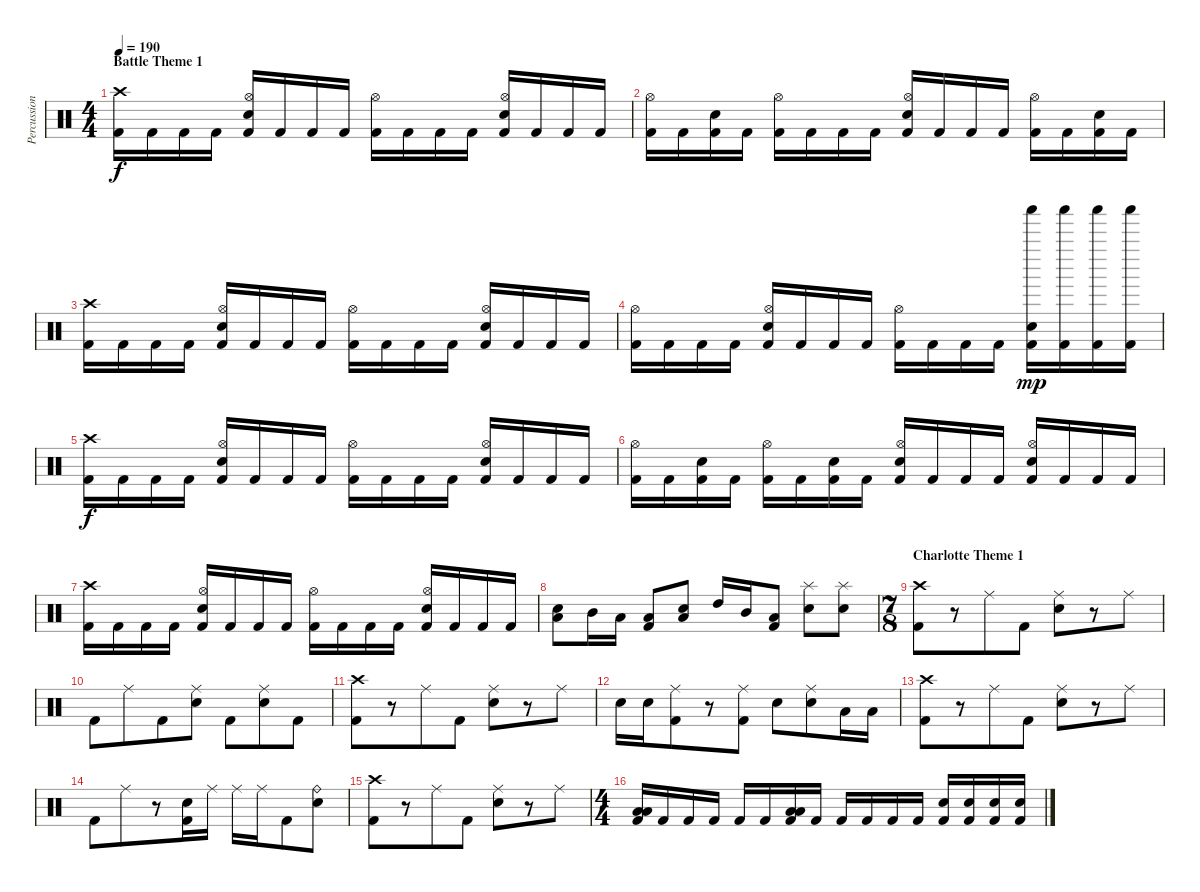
\track ("Percussion" "Percussion") {instrument percussion}
\staff {score}
\articulation defaults
\ts (4 4)
\section ("" "Battle Theme 1")
\tempo 190
\clef neutral
\ks c
("Crash high (hit)" "Kick (hit) 2").16{dy f} "Kick (hit) 2".16 "Kick (hit) 2".16 "Kick (hit) 2".16 ("Hi-Hat (open)" "Electric Snare (hit)" "Kick (hit) 2").16 "Kick (hit) 2".16 "Kick (hit) 2".16 "Kick (hit) 2".16 ("Hi-Hat (open)" "Kick (hit) 2").16 "Kick (hit) 2".16 "Kick (hit) 2".16 "Kick (hit) 2".16 ("Hi-Hat (open)" "Electric Snare (hit)" "Kick (hit) 2").16 "Kick (hit) 2".16 "Kick (hit) 2".16 "Kick (hit) 2".16 |
("Hi-Hat (open)" "Kick (hit) 2").16 "Kick (hit) 2".16 ("Electric Snare (hit)" "Kick (hit) 2").16 "Kick (hit) 2".16 ("Hi-Hat (open)" "Kick (hit) 2").16 "Kick (hit) 2".16 "Kick (hit) 2".16 "Kick (hit) 2".16 ("Hi-Hat (open)" "Electric Snare (hit)" "Kick (hit) 2").16 "Kick (hit) 2".16 "Kick (hit) 2".16 "Kick (hit) 2".16 ("Hi-Hat (open)" "Kick (hit) 2").16 "Kick (hit) 2".16 ("Electric Snare (hit)" "Kick (hit) 2").16 "Kick (hit) 2".16 |
("Crash high (hit)" "Kick (hit) 2").16 "Kick (hit) 2".16 "Kick (hit) 2".16 "Kick (hit) 2".16 ("Hi-Hat (open)" "Electric Snare (hit)" "Kick (hit) 2").16 "Kick (hit) 2".16 "Kick (hit) 2".16 "Kick (hit) 2".16 ("Hi-Hat (open)" "Kick (hit) 2").16 "Kick (hit) 2".16 "Kick (hit) 2".16 "Kick (hit) 2".16 ("Hi-Hat (open)" "Electric Snare (hit)" "Kick (hit) 2").16 "Kick (hit) 2".16 "Kick (hit) 2".16 "Kick (hit) 2".16 |
("Hi-Hat (open)" "Kick (hit) 2").16 "Kick (hit) 2".16 "Kick (hit) 2".16 "Kick (hit) 2".16 ("Hi-Hat (open)" "Electric Snare (hit)" "Kick (hit) 2").16 "Kick (hit) 2".16 "Kick (hit) 2".16 "Kick (hit) 2".16 ("Hi-Hat (open)" "Kick (hit) 2").16 "Kick (hit) 2".16 "Kick (hit) 2".16 "Kick (hit) 2".16 ("Shaker (hit)" "Electric Snare (hit)" "Kick (hit) 2").16{dy mp} ("Shaker (hit)" "Kick (hit) 2").16 ("Shaker (hit)" "Kick (hit) 2").16 ("Shaker (hit)" "Kick (hit) 2").16 |
("Crash high (hit)" "Kick (hit) 2").16{dy f} "Kick (hit) 2".16 "Kick (hit) 2".16 "Kick (hit) 2".16 ("Hi-Hat (open)" "Electric Snare (hit)" "Kick (hit) 2").16 "Kick (hit) 2".16 "Kick (hit) 2".16 "Kick (hit) 2".16 ("Hi-Hat (open)" "Kick (hit) 2").16 "Kick (hit) 2".16 "Kick (hit) 2".16 "Kick (hit) 2".16 ("Hi-Hat (open)" "Electric Snare (hit)" "Kick (hit) 2").16 "Kick (hit) 2".16 "Kick (hit) 2".16 "Kick (hit) 2".16 |
("Hi-Hat (open)" "Kick (hit) 2").16 "Kick (hit) 2".16 ("Electric Snare (hit)" "Kick (hit) 2").16 "Kick (hit) 2".16 ("Hi-Hat (open)" "Kick (hit) 2").16 "Kick (hit) 2".16 ("Electric Snare (hit)" "Kick (hit) 2").16 "Kick (hit) 2".16 ("Hi-Hat (open)" "Electric Snare (hit)" "Kick (hit) 2").16 "Kick (hit) 2".16 "Kick (hit) 2".16 "Kick (hit) 2".16 ("Hi-Hat (open)" "Electric Snare (hit)" "Kick (hit) 2").16 "Kick (hit) 2".16 "Kick (hit) 2".16 "Kick (hit) 2".16 |
("Crash high (hit)" "Kick (hit) 2").16 "Kick (hit) 2".16 "Kick (hit) 2".16 "Kick (hit) 2".16 ("Hi-Hat (open)" "Electric Snare (hit)" "Kick (hit) 2").16 "Kick (hit) 2".16 "Kick (hit) 2".16 "Kick (hit) 2".16 ("Hi-Hat (open)" "Kick (hit) 2").16 "Kick (hit) 2".16 "Kick (hit) 2".16 "Kick (hit) 2".16 ("Hi-Hat (open)" "Electric Snare (hit)" "Kick (hit) 2").16 "Kick (hit) 2".16 "Kick (hit) 2".16 "Kick (hit) 2".16 |
("Electric Snare (hit)" "Low Floor Tom (hit)").8 "Mid Tom (hit)".16 "Low Tom (hit)".16 ("Low Floor Tom (hit)" "Kick (hit) 2").8 ("Electric Snare (hit)" "Low Floor Tom (hit)").8 "High Tom (hit)".16 "Mid Tom (hit)".16 ("Low Tom (hit)" "Kick (hit) 2").8 ("Splash (hit)" "Electric Snare (hit)").8 ("Splash (hit)" "Electric Snare (hit)").8 |
\ts (7 8)
\section ("" "Charlotte Theme 1")
("Crash high (hit)" "Kick (hit) 2").8 r.8 "Ride (middle)".8 "Kick (hit) 2".8 ("Ride (middle)" "Electric Snare (hit)").8 r.8 "Ride (middle)".8 |
"Kick (hit) 2".8 "Ride (middle)".8 "Kick (hit) 2".8 ("Ride (middle)" "Electric Snare (hit)").8 "Kick (hit) 2".8 ("Ride (middle)" "Electric Snare (hit)").8 "Kick (hit) 2".8 |
("Crash high (hit)" "Kick (hit) 2").8 r.8 "Ride (middle)".8 "Kick (hit) 2".8 ("Ride (middle)" "Electric Snare (hit)").8 r.8 "Ride (middle)".8 |
"Electric Snare (hit)".16 "Electric Snare (hit)".16 ("Ride (middle)" "Kick (hit) 2").8 r.8 ("Ride (middle)" "Kick (hit) 2").8 "Electric Snare (hit)".8 ("Ride (middle)" "Electric Snare (hit)").8 "Low Tom (hit)".16 "Low Floor Tom (hit)".16 |
("Crash high (hit)" "Kick (hit) 2").8 r.8 "Ride (middle)".8 "Kick (hit) 2".8 ("Ride (middle)" "Electric Snare (hit)").8 r.8 "Ride (middle)".8 |
"Kick (hit) 2".8 "Ride (middle)".8 r.8 ("Electric Snare (hit)" "Kick (hit) 2").16 "Ride (middle)".16 "Ride (middle)".16 "Ride (middle)".16 "Kick (hit) 2".8 ("Ride (bell)" "Electric Snare (hit)").8 |
("Crash high (hit)" "Kick (hit) 2").8 r.8 "Ride (middle)".8 "Kick (hit) 2".8 ("Ride (middle)" "Electric Snare (hit)").8 r.8 "Ride (middle)".8 |
\ts (4 4)
("Low Tom (hit)" "Low Floor Tom (hit)" "Kick (hit) 2").16 "Kick (hit) 2".16 "Kick (hit) 2".16 "Kick (hit) 2".16 "Kick (hit) 2".16 "Kick (hit) 2".16 ("Low Tom (hit)" "Low Floor Tom (hit)" "Kick (hit) 2").16 "Kick (hit) 2".16 "Kick (hit) 2".16 "Kick (hit) 2".16 "Kick (hit) 2".16 "Kick (hit) 2".16 ("Electric Snare (hit)" "Kick (hit) 2").16 ("Electric Snare (hit)" "Kick (hit) 2").16 ("Electric Snare (hit)" "Kick (hit) 2").16 ("Electric Snare (hit)" "Kick (hit) 2").16
